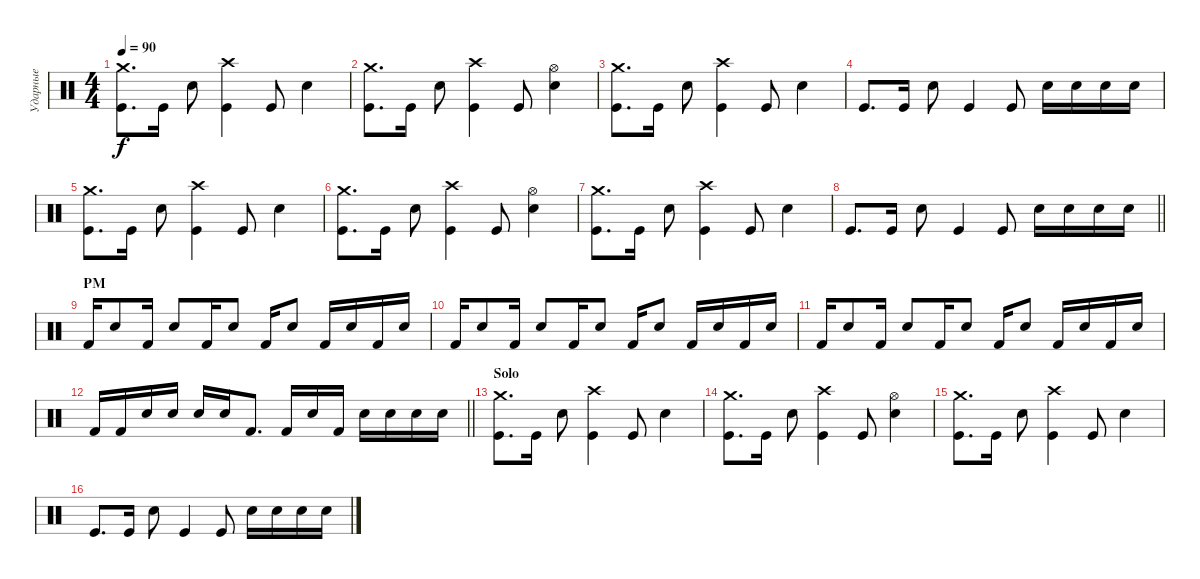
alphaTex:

\track ("Ударные" "Ударные") {instrument percussion}
\staff {score}
\articulation defaults
\ts (4 4)
\tempo 90
\clef neutral
\ks c
("Crash medium (hit)" "Kick (hit)").8{d dy f} "Kick (hit)".16 "Snare (hit) 2".8 ("Crash high (hit)" "Kick (hit)").4 "Kick (hit)".8 "Snare (hit) 2".4 |
("Crash medium (hit)" "Kick (hit)").8{d} "Kick (hit)".16 "Snare (hit) 2".8 ("Crash high (hit)" "Kick (hit)").4 "Kick (hit)".8 ("Hi-Hat (open)" "Snare (hit) 2").4 |
("Crash medium (hit)" "Kick (hit)").8{d} "Kick (hit)".16 "Snare (hit) 2".8 ("Crash high (hit)" "Kick (hit)").4 "Kick (hit)".8 "Snare (hit) 2".4 |
"Kick (hit)".8{d} "Kick (hit)".16 "Snare (hit) 2".8 "Kick (hit)".4 "Kick (hit)".8 "Snare (hit) 2".16 "Snare (hit) 2".16 "Snare (hit) 2".16 "Snare (hit) 2".16 |
("Crash medium (hit)" "Kick (hit)").8{d} "Kick (hit)".16 "Snare (hit) 2".8 ("Crash high (hit)" "Kick (hit)").4 "Kick (hit)".8 "Snare (hit) 2".4 |
("Crash medium (hit)" "Kick (hit)").8{d} "Kick (hit)".16 "Snare (hit) 2".8 ("Crash high (hit)" "Kick (hit)").4 "Kick (hit)".8 ("Hi-Hat (open)" "Snare (hit) 2").4 |
("Crash medium (hit)" "Kick (hit)").8{d} "Kick (hit)".16 "Snare (hit) 2".8 ("Crash high (hit)" "Kick (hit)").4 "Kick (hit)".8 "Snare (hit) 2".4 |
\barLineRight lightlight "Kick (hit)".8{d} "Kick (hit)".16 "Snare (hit) 2".8 "Kick (hit)".4 "Kick (hit)".8 "Snare (hit) 2".16 "Snare (hit) 2".16 "Snare (hit) 2".16 "Snare (hit) 2".16
|
\section ("" "PM")
"Kick (hit) 2".16 "Snare (hit) 2".8 "Kick (hit) 2".16 "Snare (hit) 2".8 "Kick (hit) 2".16 "Snare (hit) 2".8 "Kick (hit) 2".16 "Snare (hit) 2".8 "Kick (hit) 2".16 "Snare (hit) 2".16 "Kick (hit) 2".16 "Snare (hit) 2".16 |
"Kick (hit) 2".16 "Snare (hit) 2".8 "Kick (hit) 2".16 "Snare (hit) 2".8 "Kick (hit) 2".16 "Snare (hit) 2".8 "Kick (hit) 2".16 "Snare (hit) 2".8 "Kick (hit) 2".16 "Snare (hit) 2".16 "Kick (hit) 2".16 "Snare (hit) 2".16 |
"Kick (hit) 2".16 "Snare (hit) 2".8 "Kick (hit) 2".16 "Snare (hit) 2".8 "Kick (hit) 2".16 "Snare (hit) 2".8 "Kick (hit) 2".16 "Snare (hit) 2".8 "Kick (hit) 2".16 "Snare (hit) 2".16 "Kick (hit) 2".16 "Snare (hit) 2".16 |
\barLineRight lightlight "Kick (hit) 2".16 "Kick (hit) 2".16 "Snare (hit) 2".16 "Snare (hit) 2".16 "Snare (hit) 2".16 "Snare (hit) 2".16 "Kick (hit) 2".8{d} "Kick (hit) 2".16 "Snare (hit) 2".16 "Kick (hit) 2".16 "Snare (hit) 2".16 "Snare (hit) 2".16 "Snare (hit) 2".16 "Snare (hit) 2".16
|
\section ("" "Solo")
("Crash medium (hit)" "Kick (hit)").8{d} "Kick (hit)".16 "Snare (hit) 2".8 ("Crash high (hit)" "Kick (hit)").4 "Kick (hit)".8 "Snare (hit) 2".4 |
("Crash medium (hit)" "Kick (hit)").8{d} "Kick (hit)".16 "Snare (hit) 2".8 ("Crash high (hit)" "Kick (hit)").4 "Kick (hit)".8 ("Hi-Hat (open)" "Snare (hit) 2").4 |
("Crash medium (hit)" "Kick (hit)").8{d} "Kick (hit)".16 "Snare (hit) 2".8 ("Crash high (hit)" "Kick (hit)").4 "Kick (hit)".8 "Snare (hit) 2".4 |
"Kick (hit)".8{d} "Kick (hit)".16 "Snare (hit) 2".8 "Kick (hit)".4 "Kick (hit)".8 "Snare (hit) 2".16 "Snare (hit) 2".16 "Snare (hit) 2".16 "Snare (hit) 2".16
